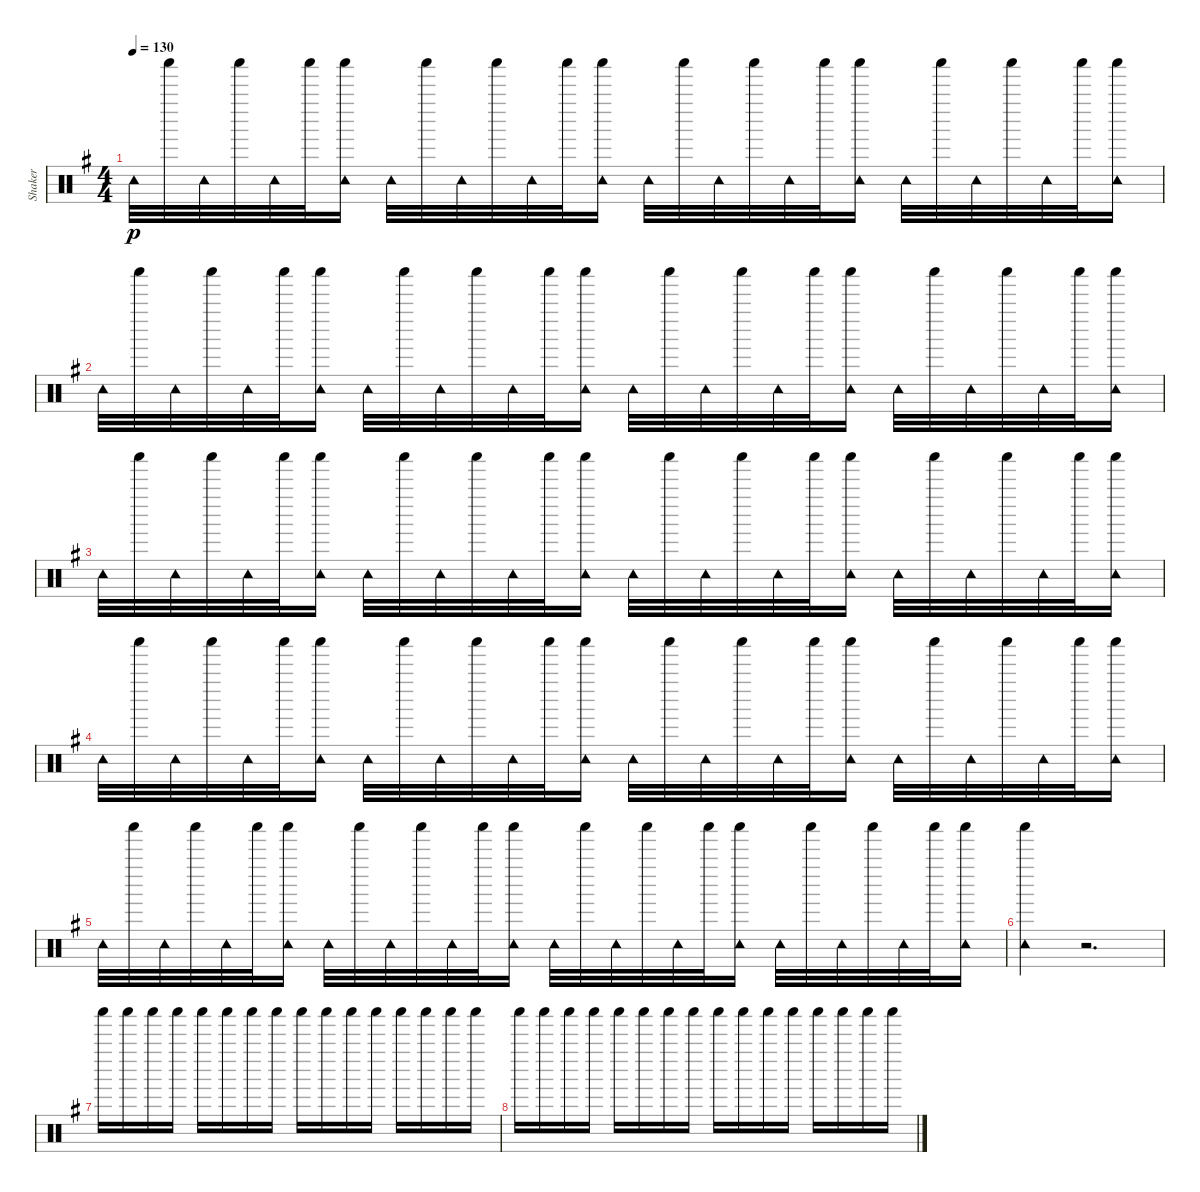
\track ("Shaker" "Shaker") {instrument percussion}
\staff {score}
\articulation defaults
\ts (4 4)
\tempo 130
\clef neutral
\ks g "Tambourine (hit)".32{dy p} "Shaker (hit)".32 "Tambourine (hit)".32 "Shaker (hit)".32 "Tambourine (hit)".32 "Shaker (hit)".32
("Tambourine (hit)" "Shaker (hit)").16 "Tambourine (hit)".32 "Shaker (hit)".32 "Tambourine (hit)".32 "Shaker (hit)".32 "Tambourine (hit)".32 "Shaker (hit)".32 ("Tambourine (hit)" "Shaker (hit)").16 "Tambourine (hit)".32 "Shaker (hit)".32 "Tambourine (hit)".32 "Shaker (hit)".32 "Tambourine (hit)".32 "Shaker (hit)".32 ("Tambourine (hit)" "Shaker (hit)").16 "Tambourine (hit)".32 "Shaker (hit)".32 "Tambourine (hit)".32 "Shaker (hit)".32 "Tambourine (hit)".32 "Shaker (hit)".32 ("Tambourine (hit)" "Shaker (hit)").16 |
"Tambourine (hit)".32 "Shaker (hit)".32 "Tambourine (hit)".32 "Shaker (hit)".32 "Tambourine (hit)".32 "Shaker (hit)".32 ("Tambourine (hit)" "Shaker (hit)").16 "Tambourine (hit)".32 "Shaker (hit)".32 "Tambourine (hit)".32 "Shaker (hit)".32 "Tambourine (hit)".32 "Shaker (hit)".32 ("Tambourine (hit)" "Shaker (hit)").16 "Tambourine (hit)".32 "Shaker (hit)".32 "Tambourine (hit)".32 "Shaker (hit)".32 "Tambourine (hit)".32 "Shaker (hit)".32 ("Tambourine (hit)" "Shaker (hit)").16 "Tambourine (hit)".32 "Shaker (hit)".32 "Tambourine (hit)".32 "Shaker (hit)".32 "Tambourine (hit)".32 "Shaker (hit)".32 ("Tambourine (hit)" "Shaker (hit)").16 |
"Tambourine (hit)".32 "Shaker (hit)".32 "Tambourine (hit)".32 "Shaker (hit)".32 "Tambourine (hit)".32 "Shaker (hit)".32 ("Tambourine (hit)" "Shaker (hit)").16 "Tambourine (hit)".32 "Shaker (hit)".32 "Tambourine (hit)".32 "Shaker (hit)".32 "Tambourine (hit)".32 "Shaker (hit)".32 ("Tambourine (hit)" "Shaker (hit)").16 "Tambourine (hit)".32 "Shaker (hit)".32 "Tambourine (hit)".32 "Shaker (hit)".32 "Tambourine (hit)".32 "Shaker (hit)".32 ("Tambourine (hit)" "Shaker (hit)").16 "Tambourine (hit)".32 "Shaker (hit)".32 "Tambourine (hit)".32 "Shaker (hit)".32 "Tambourine (hit)".32 "Shaker (hit)".32 ("Tambourine (hit)" "Shaker (hit)").16 |
"Tambourine (hit)".32 "Shaker (hit)".32 "Tambourine (hit)".32 "Shaker (hit)".32 "Tambourine (hit)".32 "Shaker (hit)".32 ("Tambourine (hit)" "Shaker (hit)").16 "Tambourine (hit)".32 "Shaker (hit)".32 "Tambourine (hit)".32 "Shaker (hit)".32 "Tambourine (hit)".32 "Shaker (hit)".32 ("Tambourine (hit)" "Shaker (hit)").16 "Tambourine (hit)".32 "Shaker (hit)".32 "Tambourine (hit)".32 "Shaker (hit)".32 "Tambourine (hit)".32 "Shaker (hit)".32 ("Tambourine (hit)" "Shaker (hit)").16 "Tambourine (hit)".32 "Shaker (hit)".32 "Tambourine (hit)".32 "Shaker (hit)".32 "Tambourine (hit)".32 "Shaker (hit)".32 ("Tambourine (hit)" "Shaker (hit)").16 |
"Tambourine (hit)".32 "Shaker (hit)".32 "Tambourine (hit)".32 "Shaker (hit)".32 "Tambourine (hit)".32 "Shaker (hit)".32 ("Tambourine (hit)" "Shaker (hit)").16 "Tambourine (hit)".32 "Shaker (hit)".32 "Tambourine (hit)".32 "Shaker (hit)".32 "Tambourine (hit)".32 "Shaker (hit)".32 ("Tambourine (hit)" "Shaker (hit)").16 "Tambourine (hit)".32 "Shaker (hit)".32 "Tambourine (hit)".32 "Shaker (hit)".32 "Tambourine (hit)".32 "Shaker (hit)".32 ("Tambourine (hit)" "Shaker (hit)").16 "Tambourine (hit)".32 "Shaker (hit)".32 "Tambourine (hit)".32 "Shaker (hit)".32 "Tambourine (hit)".32 "Shaker (hit)".32 ("Tambourine (hit)" "Shaker (hit)").16 |
("Shaker (hit)" "Tambourine (hit)").4 r.2{d} |
"Shaker (hit)".16 "Shaker (hit)".16 "Shaker (hit)".16 "Shaker (hit)".16 "Shaker (hit)".16 "Shaker (hit)".16 "Shaker (hit)".16 "Shaker (hit)".16 "Shaker (hit)".16 "Shaker (hit)".16 "Shaker (hit)".16 "Shaker (hit)".16 "Shaker (hit)".16 "Shaker (hit)".16 "Shaker (hit)".16 "Shaker (hit)".16 |
"Shaker (hit)".16 "Shaker (hit)".16 "Shaker (hit)".16 "Shaker (hit)".16 "Shaker (hit)".16 "Shaker (hit)".16 "Shaker (hit)".16 "Shaker (hit)".16 "Shaker (hit)".16 "Shaker (hit)".16 "Shaker (hit)".16 "Shaker (hit)".16 "Shaker (hit)".16 "Shaker (hit)".16 "Shaker (hit)".16 "Shaker (hit)".16
